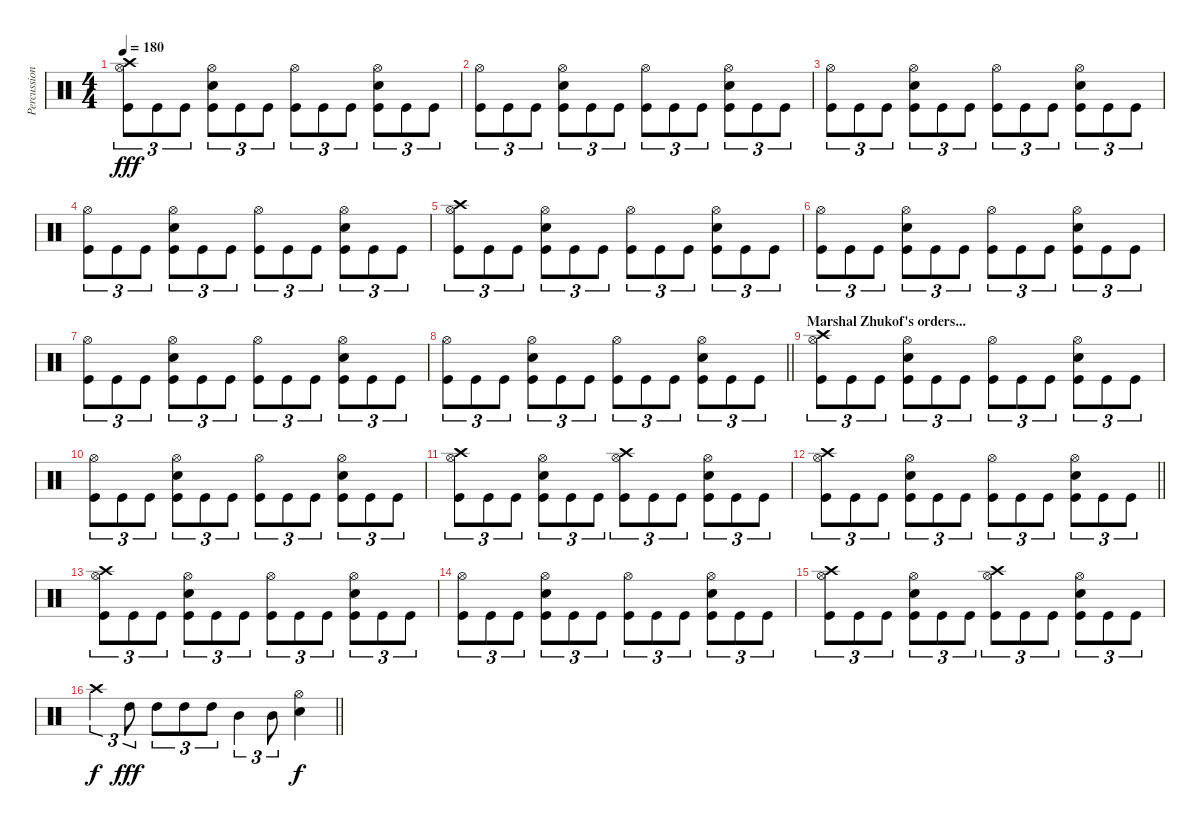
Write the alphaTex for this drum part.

\track ("Percussion" "Percussion") {instrument percussion}
\staff {score}
\articulation defaults
\ts (4 4)
\tempo 180
\clef neutral
\ks c
("Crash high (hit)" "Hi-Hat (open)" "Kick (hit)").8{tu (3 2) dy fff} "Kick (hit)".8{tu (3 2)} "Kick (hit)".8{tu (3 2)} ("Hi-Hat (open)" "Electric Snare (hit)" "Kick (hit)").8{tu (3 2)} "Kick (hit)".8{tu (3 2)} "Kick (hit)".8{tu (3 2)} ("Hi-Hat (open)" "Kick (hit)").8{tu (3 2)} "Kick (hit)".8{tu (3 2)} "Kick (hit)".8{tu (3 2)} ("Hi-Hat (open)" "Electric Snare (hit)" "Kick (hit)").8{tu (3 2)} "Kick (hit)".8{tu (3 2)} "Kick (hit)".8{tu (3 2)} |
("Hi-Hat (open)" "Kick (hit)").8{tu (3 2)} "Kick (hit)".8{tu (3 2)} "Kick (hit)".8{tu (3 2)} ("Hi-Hat (open)" "Electric Snare (hit)" "Kick (hit)").8{tu (3 2)} "Kick (hit)".8{tu (3 2)} "Kick (hit)".8{tu (3 2)} ("Hi-Hat (open)" "Kick (hit)").8{tu (3 2)} "Kick (hit)".8{tu (3 2)} "Kick (hit)".8{tu (3 2)} ("Hi-Hat (open)" "Electric Snare (hit)" "Kick (hit)").8{tu (3 2)} "Kick (hit)".8{tu (3 2)} "Kick (hit)".8{tu (3 2)} |
("Hi-Hat (open)" "Kick (hit)").8{tu (3 2)} "Kick (hit)".8{tu (3 2)} "Kick (hit)".8{tu (3 2)} ("Hi-Hat (open)" "Electric Snare (hit)" "Kick (hit)").8{tu (3 2)} "Kick (hit)".8{tu (3 2)} "Kick (hit)".8{tu (3 2)} ("Hi-Hat (open)" "Kick (hit)").8{tu (3 2)} "Kick (hit)".8{tu (3 2)} "Kick (hit)".8{tu (3 2)} ("Hi-Hat (open)" "Electric Snare (hit)" "Kick (hit)").8{tu (3 2)} "Kick (hit)".8{tu (3 2)} "Kick (hit)".8{tu (3 2)} |
("Hi-Hat (open)" "Kick (hit)").8{tu (3 2)} "Kick (hit)".8{tu (3 2)} "Kick (hit)".8{tu (3 2)} ("Hi-Hat (open)" "Electric Snare (hit)" "Kick (hit)").8{tu (3 2)} "Kick (hit)".8{tu (3 2)} "Kick (hit)".8{tu (3 2)} ("Hi-Hat (open)" "Kick (hit)").8{tu (3 2)} "Kick (hit)".8{tu (3 2)} "Kick (hit)".8{tu (3 2)} ("Hi-Hat (open)" "Electric Snare (hit)" "Kick (hit)").8{tu (3 2)} "Kick (hit)".8{tu (3 2)} "Kick (hit)".8{tu (3 2)} |
("Crash high (hit)" "Hi-Hat (open)" "Kick (hit)").8{tu (3 2)} "Kick (hit)".8{tu (3 2)} "Kick (hit)".8{tu (3 2)} ("Hi-Hat (open)" "Electric Snare (hit)" "Kick (hit)").8{tu (3 2)} "Kick (hit)".8{tu (3 2)} "Kick (hit)".8{tu (3 2)} ("Hi-Hat (open)" "Kick (hit)").8{tu (3 2)} "Kick (hit)".8{tu (3 2)} "Kick (hit)".8{tu (3 2)} ("Hi-Hat (open)" "Electric Snare (hit)" "Kick (hit)").8{tu (3 2)} "Kick (hit)".8{tu (3 2)} "Kick (hit)".8{tu (3 2)} |
("Hi-Hat (open)" "Kick (hit)").8{tu (3 2)} "Kick (hit)".8{tu (3 2)} "Kick (hit)".8{tu (3 2)} ("Hi-Hat (open)" "Electric Snare (hit)" "Kick (hit)").8{tu (3 2)} "Kick (hit)".8{tu (3 2)} "Kick (hit)".8{tu (3 2)} ("Hi-Hat (open)" "Kick (hit)").8{tu (3 2)} "Kick (hit)".8{tu (3 2)} "Kick (hit)".8{tu (3 2)} ("Hi-Hat (open)" "Electric Snare (hit)" "Kick (hit)").8{tu (3 2)} "Kick (hit)".8{tu (3 2)} "Kick (hit)".8{tu (3 2)} |
("Hi-Hat (open)" "Kick (hit)").8{tu (3 2)} "Kick (hit)".8{tu (3 2)} "Kick (hit)".8{tu (3 2)} ("Hi-Hat (open)" "Electric Snare (hit)" "Kick (hit)").8{tu (3 2)} "Kick (hit)".8{tu (3 2)} "Kick (hit)".8{tu (3 2)} ("Hi-Hat (open)" "Kick (hit)").8{tu (3 2)} "Kick (hit)".8{tu (3 2)} "Kick (hit)".8{tu (3 2)} ("Hi-Hat (open)" "Electric Snare (hit)" "Kick (hit)").8{tu (3 2)} "Kick (hit)".8{tu (3 2)} "Kick (hit)".8{tu (3 2)} |
\barLineRight lightlight
("Hi-Hat (open)" "Kick (hit)").8{tu (3 2)} "Kick (hit)".8{tu (3 2)} "Kick (hit)".8{tu (3 2)} ("Hi-Hat (open)" "Electric Snare (hit)" "Kick (hit)").8{tu (3 2)} "Kick (hit)".8{tu (3 2)} "Kick (hit)".8{tu (3 2)} ("Hi-Hat (open)" "Kick (hit)").8{tu (3 2)} "Kick (hit)".8{tu (3 2)} "Kick (hit)".8{tu (3 2)} ("Hi-Hat (open)" "Electric Snare (hit)" "Kick (hit)").8{tu (3 2)} "Kick (hit)".8{tu (3 2)} "Kick (hit)".8{tu (3 2)} |
\section ("" "Marshal Zhukof's orders...")
("Crash high (hit)" "Hi-Hat (open)" "Kick (hit)").8{tu (3 2)} "Kick (hit)".8{tu (3 2)} "Kick (hit)".8{tu (3 2)} ("Hi-Hat (open)" "Electric Snare (hit)" "Kick (hit)").8{tu (3 2)} "Kick (hit)".8{tu (3 2)} "Kick (hit)".8{tu (3 2)} ("Hi-Hat (open)" "Kick (hit)").8{tu (3 2)} "Kick (hit)".8{tu (3 2)} "Kick (hit)".8{tu (3 2)} ("Hi-Hat (open)" "Electric Snare (hit)" "Kick (hit)").8{tu (3 2)} "Kick (hit)".8{tu (3 2)} "Kick (hit)".8{tu (3 2)} |
("Hi-Hat (open)" "Kick (hit)").8{tu (3 2)} "Kick (hit)".8{tu (3 2)} "Kick (hit)".8{tu (3 2)} ("Hi-Hat (open)" "Electric Snare (hit)" "Kick (hit)").8{tu (3 2)} "Kick (hit)".8{tu (3 2)} "Kick (hit)".8{tu (3 2)} ("Hi-Hat (open)" "Kick (hit)").8{tu (3 2)} "Kick (hit)".8{tu (3 2)} "Kick (hit)".8{tu (3 2)} ("Hi-Hat (open)" "Electric Snare (hit)" "Kick (hit)").8{tu (3 2)} "Kick (hit)".8{tu (3 2)} "Kick (hit)".8{tu (3 2)} |
("Crash high (hit)" "Hi-Hat (open)" "Kick (hit)").8{tu (3 2)} "Kick (hit)".8{tu (3 2)} "Kick (hit)".8{tu (3 2)} ("Hi-Hat (open)" "Electric Snare (hit)" "Kick (hit)").8{tu (3 2)} "Kick (hit)".8{tu (3 2)} "Kick (hit)".8{tu (3 2)} ("Crash high (hit)" "Hi-Hat (open)" "Kick (hit)").8{tu (3 2)} "Kick (hit)".8{tu (3 2)} "Kick (hit)".8{tu (3 2)} ("Hi-Hat (open)" "Electric Snare (hit)" "Kick (hit)").8{tu (3 2)} "Kick (hit)".8{tu (3 2)} "Kick (hit)".8{tu (3 2)} |
\barLineRight lightlight
("Crash high (hit)" "Hi-Hat (open)" "Kick (hit)").8{tu (3 2)} "Kick (hit)".8{tu (3 2)} "Kick (hit)".8{tu (3 2)} ("Hi-Hat (open)" "Electric Snare (hit)" "Kick (hit)").8{tu (3 2)} "Kick (hit)".8{tu (3 2)} "Kick (hit)".8{tu (3 2)} ("Hi-Hat (open)" "Kick (hit)").8{tu (3 2)} "Kick (hit)".8{tu (3 2)} "Kick (hit)".8{tu (3 2)} ("Hi-Hat (open)" "Electric Snare (hit)" "Kick (hit)").8{tu (3 2)} "Kick (hit)".8{tu (3 2)} "Kick (hit)".8{tu (3 2)} |
("Crash high (hit)" "Hi-Hat (open)" "Kick (hit)").8{tu (3 2)} "Kick (hit)".8{tu (3 2)} "Kick (hit)".8{tu (3 2)} ("Hi-Hat (open)" "Electric Snare (hit)" "Kick (hit)").8{tu (3 2)} "Kick (hit)".8{tu (3 2)} "Kick (hit)".8{tu (3 2)} ("Hi-Hat (open)" "Kick (hit)").8{tu (3 2)} "Kick (hit)".8{tu (3 2)} "Kick (hit)".8{tu (3 2)} ("Hi-Hat (open)" "Electric Snare (hit)" "Kick (hit)").8{tu (3 2)} "Kick (hit)".8{tu (3 2)} "Kick (hit)".8{tu (3 2)} |
("Hi-Hat (open)" "Kick (hit)").8{tu (3 2)} "Kick (hit)".8{tu (3 2)} "Kick (hit)".8{tu (3 2)} ("Hi-Hat (open)" "Electric Snare (hit)" "Kick (hit)").8{tu (3 2)} "Kick (hit)".8{tu (3 2)} "Kick (hit)".8{tu (3 2)} ("Hi-Hat (open)" "Kick (hit)").8{tu (3 2)} "Kick (hit)".8{tu (3 2)} "Kick (hit)".8{tu (3 2)} ("Hi-Hat (open)" "Electric Snare (hit)" "Kick (hit)").8{tu (3 2)} "Kick (hit)".8{tu (3 2)} "Kick (hit)".8{tu (3 2)} |
("Crash high (hit)" "Hi-Hat (open)" "Kick (hit)").8{tu (3 2)} "Kick (hit)".8{tu (3 2)} "Kick (hit)".8{tu (3 2)} ("Hi-Hat (open)" "Electric Snare (hit)" "Kick (hit)").8{tu (3 2)} "Kick (hit)".8{tu (3 2)} "Kick (hit)".8{tu (3 2)} ("Crash high (hit)" "Hi-Hat (open)" "Kick (hit)").8{tu (3 2)} "Kick (hit)".8{tu (3 2)} "Kick (hit)".8{tu (3 2)} ("Hi-Hat (open)" "Electric Snare (hit)" "Kick (hit)").8{tu (3 2)} "Kick (hit)".8{tu (3 2)} "Kick (hit)".8{tu (3 2)} |
\barLineRight lightlight "Crash high (hit)".4{tu (3 2) dy f} "High Tom (hit)".8{tu (3 2) dy fff} "High Tom (hit)".8{tu (3 2)} "High Tom (hit)".8{tu (3 2)} "High Tom (hit)".8{tu (3 2)} "Mid Tom (hit)".4{tu (3 2)} "Mid Tom (hit)".8{tu (3 2)}
("Hi-Hat (open)" "Electric Snare (hit)").4{dy f}
